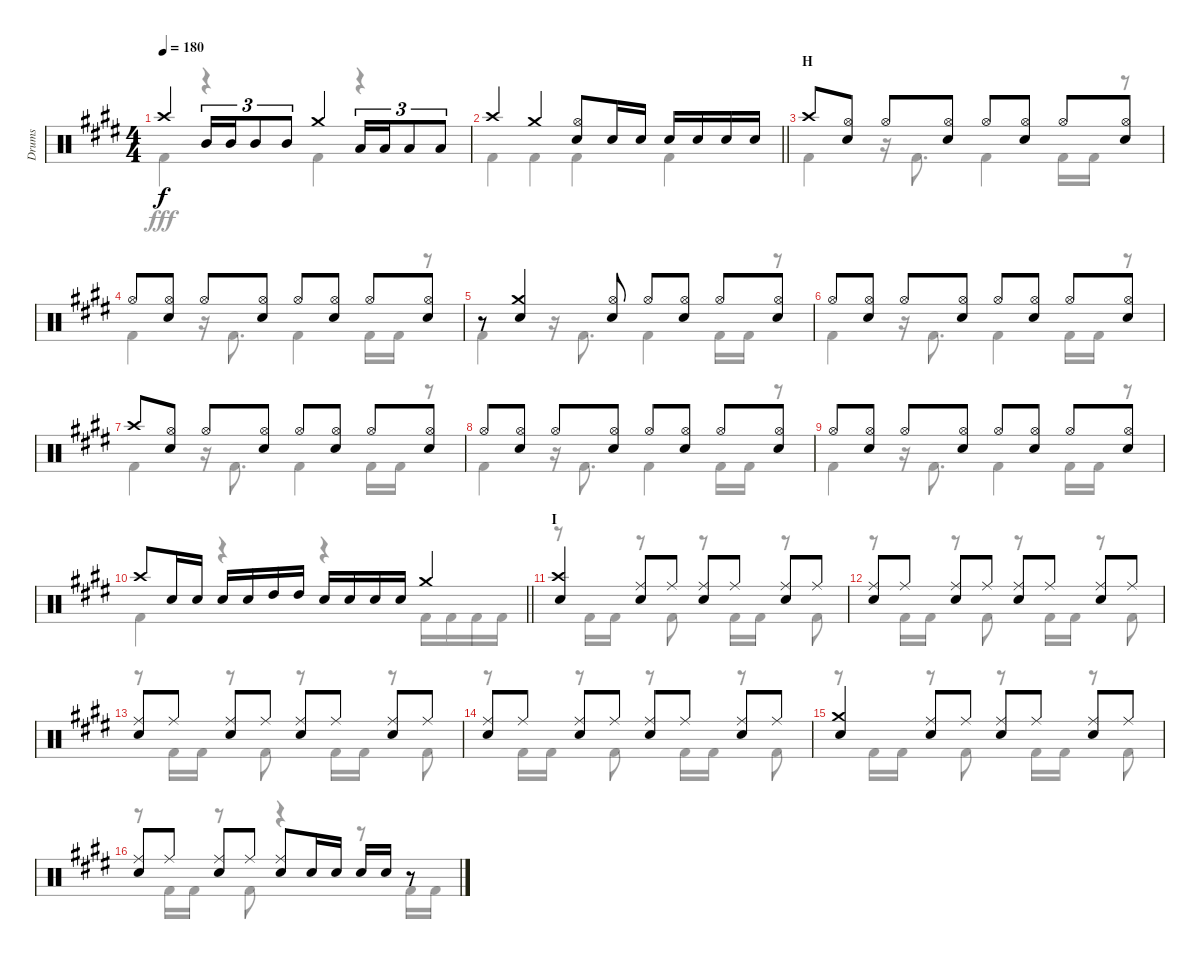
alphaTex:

\track ("Drums" "Drums") {instrument percussion}
\staff {score}
\articulation defaults
\voice
\ts (4 4)
\tempo 180
\clef neutral
\ks e "Crash high (hit)".4{dy f} "Mid Tom (hit)".16{tu (3 2)} "Mid Tom (hit)".16{tu (3 2)} "Mid Tom (hit)".8{tu (3 2)} "Mid Tom (hit)".8{tu (3 2)} "Crash medium (hit)".4 "Low Tom (hit)".16{tu (3 2)} "Low Tom (hit)".16{tu (3 2)} "Low Tom (hit)".8{tu (3 2)} "Low Tom (hit)".8{tu (3 2)}
|
\barLineRight lightlight "Crash high (hit)".4 "Crash medium (hit)".4
("Hi-Hat (open)" "Snare (hit) 2").8 "Snare (hit) 2".16 "Snare (hit) 2".16 "Snare (hit) 2".16 "Snare (hit) 2".16 "Snare (hit) 2".16 "Snare (hit) 2".16 |
\section ("" "H")
"Crash high (hit)".8 ("Hi-Hat (open)" "Snare (hit) 2").8 "Hi-Hat (open)".8 ("Hi-Hat (open)" "Snare (hit) 2").8 "Hi-Hat (open)".8 ("Hi-Hat (open)" "Snare (hit) 2").8 "Hi-Hat (open)".8 ("Hi-Hat (open)" "Snare (hit) 2").8 |
"Hi-Hat (open)".8 ("Hi-Hat (open)" "Snare (hit) 2").8 "Hi-Hat (open)".8 ("Hi-Hat (open)" "Snare (hit) 2").8 "Hi-Hat (open)".8 ("Hi-Hat (open)" "Snare (hit) 2").8 "Hi-Hat (open)".8 ("Hi-Hat (open)" "Snare (hit) 2").8 |
r.8 ("Crash medium (hit)" "Snare (hit) 2").4 ("Hi-Hat (open)" "Snare (hit) 2").8 "Hi-Hat (open)".8 ("Hi-Hat (open)" "Snare (hit) 2").8 "Hi-Hat (open)".8 ("Hi-Hat (open)" "Snare (hit) 2").8 |
"Hi-Hat (open)".8 ("Hi-Hat (open)" "Snare (hit) 2").8 "Hi-Hat (open)".8 ("Hi-Hat (open)" "Snare (hit) 2").8 "Hi-Hat (open)".8 ("Hi-Hat (open)" "Snare (hit) 2").8 "Hi-Hat (open)".8 ("Hi-Hat (open)" "Snare (hit) 2").8 |
"Crash high (hit)".8 ("Hi-Hat (open)" "Snare (hit) 2").8 "Hi-Hat (open)".8 ("Hi-Hat (open)" "Snare (hit) 2").8 "Hi-Hat (open)".8 ("Hi-Hat (open)" "Snare (hit) 2").8 "Hi-Hat (open)".8 ("Hi-Hat (open)" "Snare (hit) 2").8 |
"Hi-Hat (open)".8 ("Hi-Hat (open)" "Snare (hit) 2").8 "Hi-Hat (open)".8 ("Hi-Hat (open)" "Snare (hit) 2").8 "Hi-Hat (open)".8 ("Hi-Hat (open)" "Snare (hit) 2").8 "Hi-Hat (open)".8 ("Hi-Hat (open)" "Snare (hit) 2").8 |
"Hi-Hat (open)".8 ("Hi-Hat (open)" "Snare (hit) 2").8 "Hi-Hat (open)".8 ("Hi-Hat (open)" "Snare (hit) 2").8 "Hi-Hat (open)".8 ("Hi-Hat (open)" "Snare (hit) 2").8 "Hi-Hat (open)".8 ("Hi-Hat (open)" "Snare (hit) 2").8 |
\barLineRight lightlight "Crash high (hit)".8 "Snare (hit) 2".16 "Snare (hit) 2".16 "Snare (hit) 2".16 "Snare (hit) 2".16 "High Tom (hit)".16 "High Tom (hit)".16 "Snare (hit) 2".16 "Snare (hit) 2".16 "Snare (hit) 2".16 "Snare (hit) 2".16 "Crash medium (hit)".4
|
\section ("" "I")
("Crash high (hit)" "Snare (hit) 2").4 ("Ride (middle)" "Snare (hit) 2").8 "Ride (middle)".8 ("Ride (middle)" "Snare (hit) 2").8 "Ride (middle)".8 ("Ride (middle)" "Snare (hit) 2").8 "Ride (middle)".8 |
("Ride (middle)" "Snare (hit) 2").8 "Ride (middle)".8 ("Ride (middle)" "Snare (hit) 2").8 "Ride (middle)".8 ("Ride (middle)" "Snare (hit) 2").8 "Ride (middle)".8 ("Ride (middle)" "Snare (hit) 2").8 "Ride (middle)".8 |
("Ride (middle)" "Snare (hit) 2").8 "Ride (middle)".8 ("Ride (middle)" "Snare (hit) 2").8 "Ride (middle)".8 ("Ride (middle)" "Snare (hit) 2").8 "Ride (middle)".8 ("Ride (middle)" "Snare (hit) 2").8 "Ride (middle)".8 |
("Ride (middle)" "Snare (hit) 2").8 "Ride (middle)".8 ("Ride (middle)" "Snare (hit) 2").8 "Ride (middle)".8 ("Ride (middle)" "Snare (hit) 2").8 "Ride (middle)".8 ("Ride (middle)" "Snare (hit) 2").8 "Ride (middle)".8 |
("Crash medium (hit)" "Snare (hit) 2").4 ("Ride (middle)" "Snare (hit) 2").8 "Ride (middle)".8 ("Ride (middle)" "Snare (hit) 2").8 "Ride (middle)".8 ("Ride (middle)" "Snare (hit) 2").8 "Ride (middle)".8 |
("Ride (middle)" "Snare (hit) 2").8 "Ride (middle)".8 ("Ride (middle)" "Snare (hit) 2").8 "Ride (middle)".8 ("Ride (middle)" "Snare (hit) 2").8 "Snare (hit) 2".16 "Snare (hit) 2".16 "Snare (hit) 2".16 "Snare (hit) 2".16 r.8
\voice
\clef neutral
\ottava regular
\simile none
\ks e "Kick (hit) 2".4{dy fff}
r.4 "Kick (hit) 2".4 r.4 |
\barLineRight lightlight "Kick (hit) 2".4 "Kick (hit) 2".4 "Kick (hit) 2".4 "Kick (hit) 2".4
|
"Kick (hit) 2".4 r.16 "Kick (hit) 2".8{d} "Kick (hit) 2".4 "Kick (hit) 2".16 "Kick (hit) 2".16 r.8 |
"Kick (hit) 2".4 r.16 "Kick (hit) 2".8{d} "Kick (hit) 2".4 "Kick (hit) 2".16 "Kick (hit) 2".16 r.8 |
"Kick (hit) 2".4 r.16 "Kick (hit) 2".8{d} "Kick (hit) 2".4 "Kick (hit) 2".16 "Kick (hit) 2".16 r.8 |
"Kick (hit) 2".4 r.16 "Kick (hit) 2".8{d} "Kick (hit) 2".4 "Kick (hit) 2".16 "Kick (hit) 2".16 r.8 |
"Kick (hit) 2".4 r.16 "Kick (hit) 2".8{d} "Kick (hit) 2".4 "Kick (hit) 2".16 "Kick (hit) 2".16 r.8 |
"Kick (hit) 2".4 r.16 "Kick (hit) 2".8{d} "Kick (hit) 2".4 "Kick (hit) 2".16 "Kick (hit) 2".16 r.8 |
"Kick (hit) 2".4 r.16 "Kick (hit) 2".8{d} "Kick (hit) 2".4 "Kick (hit) 2".16 "Kick (hit) 2".16 r.8 |
\barLineRight lightlight "Kick (hit) 2".4
r.4 r.4 "Kick (hit) 2".16 "Kick (hit) 2".16 "Kick (hit) 2".16 "Kick (hit) 2".16 |
r.8 "Kick (hit) 2".16 "Kick (hit) 2".16 r.8 "Kick (hit) 2".8 r.8 "Kick (hit) 2".16 "Kick (hit) 2".16 r.8 "Kick (hit) 2".8 |
r.8 "Kick (hit) 2".16 "Kick (hit) 2".16 r.8 "Kick (hit) 2".8 r.8 "Kick (hit) 2".16 "Kick (hit) 2".16 r.8 "Kick (hit) 2".8 |
r.8 "Kick (hit) 2".16 "Kick (hit) 2".16 r.8 "Kick (hit) 2".8 r.8 "Kick (hit) 2".16 "Kick (hit) 2".16 r.8 "Kick (hit) 2".8 |
r.8 "Kick (hit) 2".16 "Kick (hit) 2".16 r.8 "Kick (hit) 2".8 r.8 "Kick (hit) 2".16 "Kick (hit) 2".16 r.8 "Kick (hit) 2".8 |
r.8 "Kick (hit) 2".16 "Kick (hit) 2".16 r.8 "Kick (hit) 2".8 r.8 "Kick (hit) 2".16 "Kick (hit) 2".16 r.8 "Kick (hit) 2".8 |
r.8 "Kick (hit) 2".16 "Kick (hit) 2".16 r.8 "Kick (hit) 2".8 r.4 r.8 "Kick (hit) 2".16 "Kick (hit) 2".16
